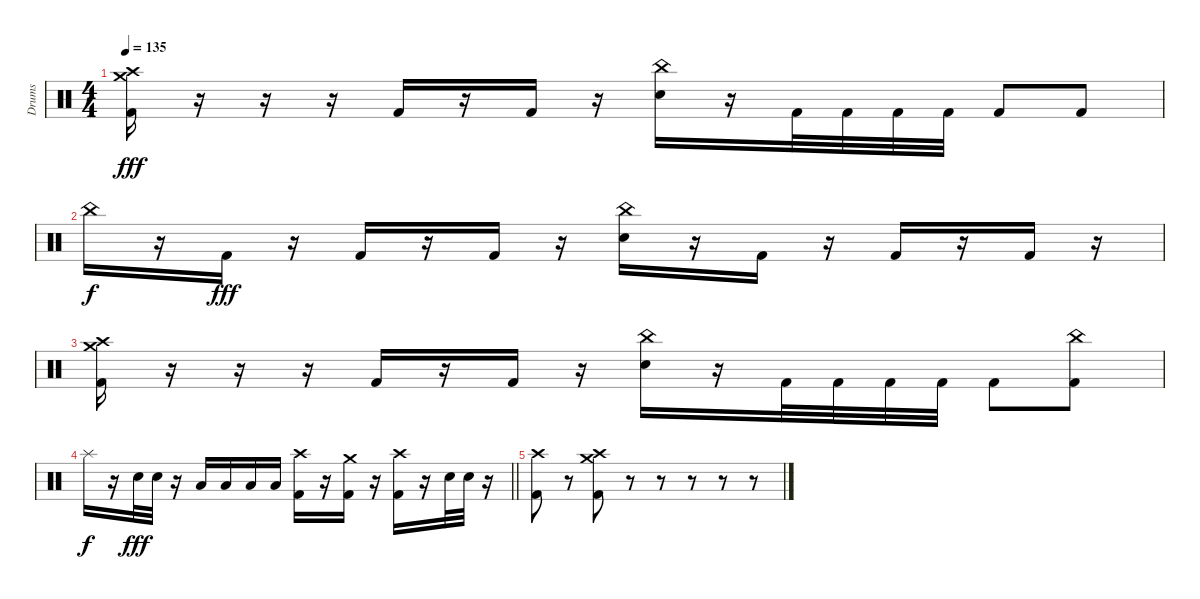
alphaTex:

\track ("Drums" "Drums") {instrument percussion}
\staff {score}
\articulation defaults
\ts (4 4)
\tempo 135
\clef neutral
\ks c
("Crash high (hit)" "Crash medium (hit)" "Kick (hit) 2").16{dy fff} r.16 r.16 r.16 "Kick (hit) 2".16 r.16 "Kick (hit) 2".16 r.16 ("China (hit)" "Electric Snare (hit)").16 r.16 "Kick (hit) 2".32 "Kick (hit) 2".32 "Kick (hit) 2".32 "Kick (hit) 2".32 "Kick (hit) 2".8 "Kick (hit) 2".8 |
"China (hit)".16{dy f} r.16 "Kick (hit) 2".16{dy fff} r.16 "Kick (hit) 2".16 r.16 "Kick (hit) 2".16 r.16 ("China (hit)" "Electric Snare (hit)").16 r.16 "Kick (hit) 2".16 r.16 "Kick (hit) 2".16 r.16 "Kick (hit) 2".16 r.16 |
("Crash high (hit)" "Crash medium (hit)" "Kick (hit) 2").16 r.16 r.16 r.16 "Kick (hit) 2".16 r.16 "Kick (hit) 2".16 r.16 ("China (hit)" "Electric Snare (hit)").16 r.16 "Kick (hit) 2".32 "Kick (hit) 2".32 "Kick (hit) 2".32 "Kick (hit) 2".32 "Kick (hit) 2".8 ("China (hit)" "Kick (hit) 2").8 |
\barLineRight lightlight "Splash (hit)".16{dy f}
r.16 "Electric Snare (hit)".32{dy fff} "Electric Snare (hit)".32 r.16 "Low Tom (hit)".16 "Low Tom (hit)".16 "Low Floor Tom (hit)".16 "Low Floor Tom (hit)".16 ("Crash high (hit)" "Kick (hit) 2").16 r.16 ("Crash medium (hit)" "Kick (hit) 2").16 r.16 ("Crash high (hit)" "Kick (hit) 2").16 r.16 "Electric Snare (hit)".32 "Electric Snare (hit)".32 r.16 |
\section ("" "")
("Crash high (hit)" "Kick (hit) 2").8 r.8{volume 0} ("Crash high (hit)" "Crash medium (hit)" "Kick (hit) 2").8{volume 13} r.8 r.8 r.8 r.8 r.8
